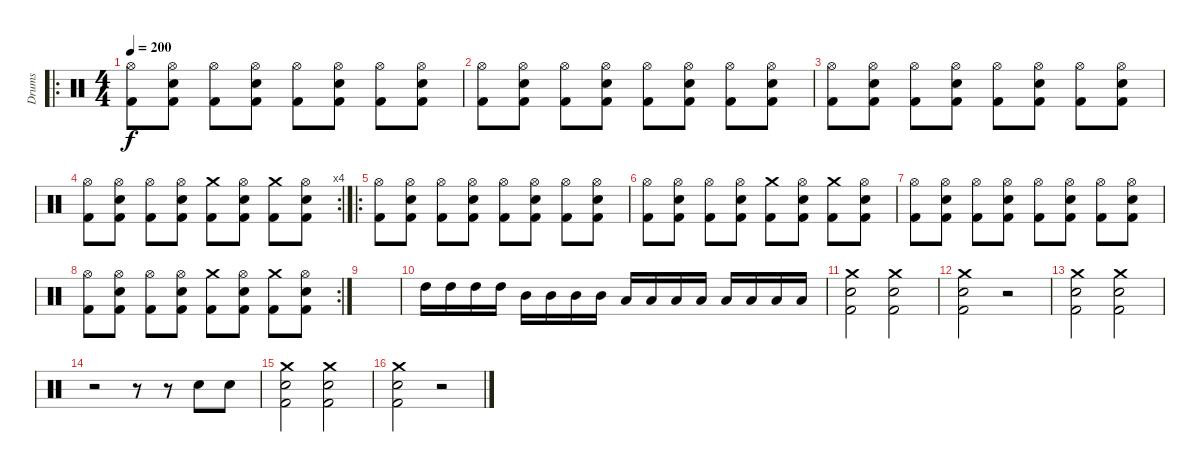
\track ("Drums" "Drums") {instrument percussion}
\staff {score}
\articulation defaults
\ro
\ts (4 4)
\tempo 200
\clef neutral
\ks c
("Hi-Hat (open)" "Kick (hit) 2").8{dy f} ("Hi-Hat (open)" "Electric Snare (hit)" "Kick (hit) 2").8 ("Hi-Hat (open)" "Kick (hit) 2").8 ("Hi-Hat (open)" "Electric Snare (hit)" "Kick (hit) 2").8 ("Hi-Hat (open)" "Kick (hit) 2").8 ("Hi-Hat (open)" "Electric Snare (hit)" "Kick (hit) 2").8 ("Hi-Hat (open)" "Kick (hit) 2").8 ("Hi-Hat (open)" "Electric Snare (hit)" "Kick (hit) 2").8 |
("Hi-Hat (open)" "Kick (hit) 2").8 ("Hi-Hat (open)" "Electric Snare (hit)" "Kick (hit) 2").8 ("Hi-Hat (open)" "Kick (hit) 2").8 ("Hi-Hat (open)" "Electric Snare (hit)" "Kick (hit) 2").8 ("Hi-Hat (open)" "Kick (hit) 2").8 ("Hi-Hat (open)" "Electric Snare (hit)" "Kick (hit) 2").8 ("Hi-Hat (open)" "Kick (hit) 2").8 ("Hi-Hat (open)" "Electric Snare (hit)" "Kick (hit) 2").8 |
("Hi-Hat (open)" "Kick (hit) 2").8 ("Hi-Hat (open)" "Electric Snare (hit)" "Kick (hit) 2").8 ("Hi-Hat (open)" "Kick (hit) 2").8 ("Hi-Hat (open)" "Electric Snare (hit)" "Kick (hit) 2").8 ("Hi-Hat (open)" "Kick (hit) 2").8 ("Hi-Hat (open)" "Electric Snare (hit)" "Kick (hit) 2").8 ("Hi-Hat (open)" "Kick (hit) 2").8 ("Hi-Hat (open)" "Electric Snare (hit)" "Kick (hit) 2").8 |
\rc 4
("Hi-Hat (open)" "Kick (hit) 2").8 ("Hi-Hat (open)" "Electric Snare (hit)" "Kick (hit) 2").8 ("Hi-Hat (open)" "Kick (hit) 2").8 ("Hi-Hat (open)" "Electric Snare (hit)" "Kick (hit) 2").8 ("Crash medium (hit)" "Kick (hit) 2").8 ("Hi-Hat (open)" "Electric Snare (hit)" "Kick (hit) 2").8 ("Crash medium (hit)" "Kick (hit) 2").8 ("Hi-Hat (open)" "Electric Snare (hit)" "Kick (hit) 2").8 |
\ro
("Hi-Hat (open)" "Kick (hit) 2").8 ("Hi-Hat (open)" "Electric Snare (hit)" "Kick (hit) 2").8 ("Hi-Hat (open)" "Kick (hit) 2").8 ("Hi-Hat (open)" "Electric Snare (hit)" "Kick (hit) 2").8 ("Hi-Hat (open)" "Kick (hit) 2").8 ("Hi-Hat (open)" "Electric Snare (hit)" "Kick (hit) 2").8 ("Hi-Hat (open)" "Kick (hit) 2").8 ("Hi-Hat (open)" "Electric Snare (hit)" "Kick (hit) 2").8 |
("Hi-Hat (open)" "Kick (hit) 2").8 ("Hi-Hat (open)" "Electric Snare (hit)" "Kick (hit) 2").8 ("Hi-Hat (open)" "Kick (hit) 2").8 ("Hi-Hat (open)" "Electric Snare (hit)" "Kick (hit) 2").8 ("Crash medium (hit)" "Kick (hit) 2").8 ("Hi-Hat (open)" "Electric Snare (hit)" "Kick (hit) 2").8 ("Crash medium (hit)" "Kick (hit) 2").8 ("Hi-Hat (open)" "Electric Snare (hit)" "Kick (hit) 2").8 |
("Hi-Hat (open)" "Kick (hit) 2").8 ("Hi-Hat (open)" "Electric Snare (hit)" "Kick (hit) 2").8 ("Hi-Hat (open)" "Kick (hit) 2").8 ("Hi-Hat (open)" "Electric Snare (hit)" "Kick (hit) 2").8 ("Hi-Hat (open)" "Kick (hit) 2").8 ("Hi-Hat (open)" "Electric Snare (hit)" "Kick (hit) 2").8 ("Hi-Hat (open)" "Kick (hit) 2").8 ("Hi-Hat (open)" "Electric Snare (hit)" "Kick (hit) 2").8 |
\rc 2
("Hi-Hat (open)" "Kick (hit) 2").8 ("Hi-Hat (open)" "Electric Snare (hit)" "Kick (hit) 2").8 ("Hi-Hat (open)" "Kick (hit) 2").8 ("Hi-Hat (open)" "Electric Snare (hit)" "Kick (hit) 2").8 ("Crash medium (hit)" "Kick (hit) 2").8 ("Hi-Hat (open)" "Electric Snare (hit)" "Kick (hit) 2").8 ("Crash medium (hit)" "Kick (hit) 2").8 ("Hi-Hat (open)" "Electric Snare (hit)" "Kick (hit) 2").8 |
|
"High Tom (hit)".16 "High Tom (hit)".16 "High Tom (hit)".16 "High Tom (hit)".16 "Mid Tom (hit)".16 "Mid Tom (hit)".16 "Mid Tom (hit)".16 "Mid Tom (hit)".16 "Low Tom (hit)".16 "Low Tom (hit)".16 "Low Tom (hit)".16 "Low Tom (hit)".16 "Low Floor Tom (hit)".16 "Low Floor Tom (hit)".16 "Low Floor Tom (hit)".16 "Low Floor Tom (hit)".16 |
("Crash medium (hit)" "Electric Snare (hit)" "Kick (hit) 2").2 ("Crash medium (hit)" "Electric Snare (hit)" "Kick (hit) 2").2 |
("Crash medium (hit)" "Electric Snare (hit)" "Kick (hit) 2").2 r.2 |
("Crash medium (hit)" "Electric Snare (hit)" "Kick (hit) 2").2 ("Crash medium (hit)" "Electric Snare (hit)" "Kick (hit) 2").2 |
r.2 r.8 r.8 "Electric Snare (hit)".8 "Electric Snare (hit)".8 |
("Crash medium (hit)" "Electric Snare (hit)" "Kick (hit) 2").2 ("Crash medium (hit)" "Electric Snare (hit)" "Kick (hit) 2").2 |
("Crash medium (hit)" "Electric Snare (hit)" "Kick (hit) 2").2 r.2
